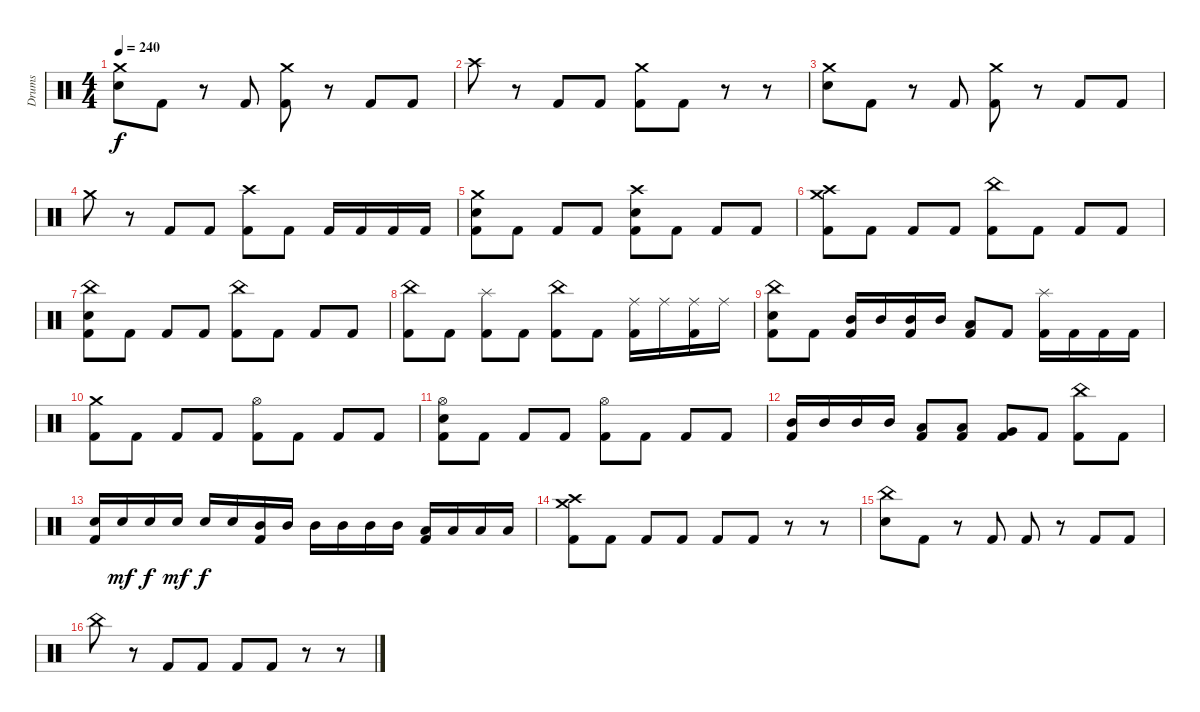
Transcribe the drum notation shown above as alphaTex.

\track ("Drums" "Drums") {instrument percussion}
\staff
\articulation defaults
\ts (4 4)
\tempo 240
\clef neutral
\ks c
("Crash medium (hit)" "Electric Snare (hit)").8{dy f} "Kick (hit) 2".8 r.8 "Kick (hit) 2".8 ("Crash medium (hit)" "Kick (hit) 2").8 r.8 "Kick (hit) 2".8 "Kick (hit) 2".8 |
"Crash high (hit)".8 r.8 "Kick (hit) 2".8 "Kick (hit) 2".8 ("Crash medium (hit)" "Kick (hit) 2").8 "Kick (hit) 2".8 r.8 r.8 |
("Crash medium (hit)" "Electric Snare (hit)").8 "Kick (hit) 2".8 r.8 "Kick (hit) 2".8 ("Crash medium (hit)" "Kick (hit) 2").8 r.8 "Kick (hit) 2".8 "Kick (hit) 2".8 |
"Crash medium (hit)".8 r.8 "Kick (hit) 2".8 "Kick (hit) 2".8 ("Crash high (hit)" "Kick (hit) 2").8 "Kick (hit) 2".8 "Kick (hit) 2".16 "Kick (hit) 2".16 "Kick (hit) 2".16 "Kick (hit) 2".16 |
("Crash medium (hit)" "Electric Snare (hit)" "Kick (hit) 2").8 "Kick (hit) 2".8 "Kick (hit) 2".8 "Kick (hit) 2".8 ("Crash high (hit)" "Electric Snare (hit)" "Kick (hit) 2").8 "Kick (hit) 2".8 "Kick (hit) 2".8 "Kick (hit) 2".8 |
("Crash medium (hit)" "Crash high (hit)" "Kick (hit) 2").8 "Kick (hit) 2".8 "Kick (hit) 2".8 "Kick (hit) 2".8 ("China (hit)" "Kick (hit) 2").8 "Kick (hit) 2".8 "Kick (hit) 2".8 "Kick (hit) 2".8 |
("China (hit)" "Electric Snare (hit)" "Kick (hit) 2").8 "Kick (hit) 2".8 "Kick (hit) 2".8 "Kick (hit) 2".8 ("China (hit)" "Kick (hit) 2").8 "Kick (hit) 2".8 "Kick (hit) 2".8 "Kick (hit) 2".8 |
("China (hit)" "Kick (hit) 2").8 "Kick (hit) 2".8 ("Splash (hit)" "Kick (hit) 2").8 "Kick (hit) 2".8 ("China (hit)" "Kick (hit) 2").8 "Kick (hit) 2".8 ("Ride (middle)" "Kick (hit) 2").16 "Ride (middle)".16 ("Ride (middle)" "Kick (hit) 2").16 "Ride (middle)".16 |
("China (hit)" "Electric Snare (hit)" "Kick (hit) 2").8 "Kick (hit) 2".8 ("Mid Tom (hit)" "Kick (hit) 2").16 "Mid Tom (hit)".16 ("Mid Tom (hit)" "Kick (hit) 2").16 "Mid Tom (hit)".16 ("Low Tom (hit)" "Kick (hit) 2").8 "Kick (hit) 2".8 ("Splash (hit)" "Kick (hit) 2").16 "Kick (hit) 2".16 "Kick (hit) 2".16 "Kick (hit) 2".16 |
("Crash medium (hit)" "Kick (hit) 2").8 "Kick (hit) 2".8 "Kick (hit) 2".8 "Kick (hit) 2".8 ("Hi-Hat (open)" "Kick (hit) 2").8 "Kick (hit) 2".8 "Kick (hit) 2".8 "Kick (hit) 2".8 |
("Hi-Hat (open)" "Electric Snare (hit)" "Kick (hit) 2").8 "Kick (hit) 2".8 "Kick (hit) 2".8 "Kick (hit) 2".8 ("Hi-Hat (open)" "Kick (hit) 2").8 "Kick (hit) 2".8 "Kick (hit) 2".8 "Kick (hit) 2".8 |
("Mid Tom (hit)" "Kick (hit) 2").16 "Mid Tom (hit)".16 "Mid Tom (hit)".16 "Mid Tom (hit)".16 ("Low Tom (hit)" "Kick (hit) 2").8 ("Low Tom (hit)" "Kick (hit) 2").8 ("Very Low Tom (hit)" "Kick (hit) 2").8 "Kick (hit) 2".8 ("China (hit)" "Kick (hit) 2").8 "Kick (hit) 2".8 |
("Electric Snare (hit)" "Kick (hit) 2").16 "Electric Snare (hit)".16{dy mf} "Electric Snare (hit)".16{dy f} "Electric Snare (hit)".16{dy mf} "Electric Snare (hit)".16{dy f} "Electric Snare (hit)".16 ("Mid Tom (hit)" "Kick (hit) 2").16 "Mid Tom (hit)".16 "Mid Tom (hit)".16 "Mid Tom (hit)".16 "Mid Tom (hit)".16 "Mid Tom (hit)".16 ("Low Tom (hit)" "Kick (hit) 2").16 "Low Tom (hit)".16 "Low Tom (hit)".16 "Low Tom (hit)".16 |
("Crash medium (hit)" "Crash high (hit)" "Kick (hit) 2").8 "Kick (hit) 2".8 "Kick (hit) 2".8 "Kick (hit) 2".8 "Kick (hit) 2".8 "Kick (hit) 2".8 r.8 r.8 |
("China (hit)" "Electric Snare (hit)").8 "Kick (hit) 2".8 r.8 "Kick (hit) 2".8 "Kick (hit) 2".8 r.8 "Kick (hit) 2".8 "Kick (hit) 2".8 |
"China (hit)".8 r.8 "Kick (hit) 2".8 "Kick (hit) 2".8 "Kick (hit) 2".8 "Kick (hit) 2".8 r.8 r.8
